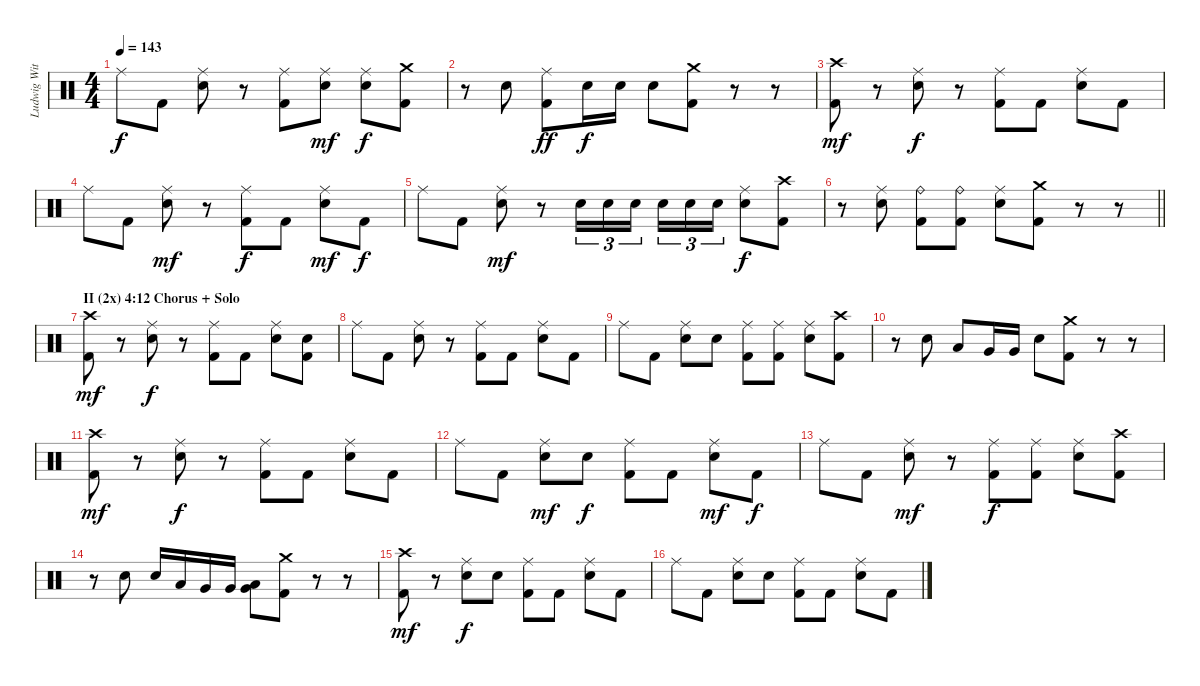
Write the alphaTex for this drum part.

\track ("Ludwig Witt (Drums)" "Ludwig Wit") {instrument percussion}
\staff {score}
\articulation defaults
\ts (4 4)
\tempo 143
\clef neutral
\ks c "Ride (middle)".8{dy f} "Kick (hit) 2".8
("Ride (middle)" "Electric Snare (hit)").8 r.8 ("Ride (middle)" "Kick (hit) 2").8 ("Ride (middle)" "Electric Snare (hit)").8{dy mf} ("Ride (middle)" "Electric Snare (hit)").8{dy f} ("Crash medium (hit)" "Kick (hit) 2").8 |
r.8 "Electric Snare (hit)".8 ("Ride (middle)" "Kick (hit) 2").8{dy ff} "Electric Snare (hit)".16{dy f} "Electric Snare (hit)".16 "Electric Snare (hit)".8 ("Crash medium (hit)" "Kick (hit) 2").8 r.8 r.8 |
("Crash high (hit)" "Kick (hit) 2").8{dy mf} r.8 ("Ride (middle)" "Electric Snare (hit)").8{dy f} r.8 ("Ride (middle)" "Kick (hit) 2").8 "Kick (hit) 2".8 ("Ride (middle)" "Electric Snare (hit)").8 "Kick (hit) 2".8 |
"Ride (middle)".8 "Kick (hit) 2".8 ("Ride (middle)" "Electric Snare (hit)").8{dy mf} r.8 ("Ride (middle)" "Kick (hit) 2").8{dy f} "Kick (hit) 2".8 ("Ride (middle)" "Electric Snare (hit)").8{dy mf} "Kick (hit) 2".8{dy f} |
"Ride (middle)".8 "Kick (hit) 2".8 ("Ride (middle)" "Electric Snare (hit)").8{dy mf} r.8 "Electric Snare (hit)".16{tu (3 2)} "Electric Snare (hit)".16{tu (3 2)} "Electric Snare (hit)".16{tu (3 2) beam splitsecondary} "Electric Snare (hit)".16{tu (3 2)} "Electric Snare (hit)".16{tu (3 2)} "Electric Snare (hit)".16{tu (3 2)} ("Ride (middle)" "Electric Snare (hit)").8{dy f} ("Crash high (hit)" "Kick (hit) 2").8 |
\barLineRight lightlight
r.8 ("Ride (middle)" "Electric Snare (hit)").8 ("Ride (bell)" "Kick (hit) 2").8 ("Ride (bell)" "Kick (hit) 2").8 ("Ride (middle)" "Electric Snare (hit)").8 ("Crash medium (hit)" "Kick (hit) 2").8 r.8 r.8 |
\section ("" "II (2x) 4:12 Chorus + Solo")
("Crash high (hit)" "Kick (hit) 2").8{dy mf} r.8 ("Ride (middle)" "Electric Snare (hit)").8{dy f} r.8 ("Ride (middle)" "Kick (hit) 2").8 "Kick (hit) 2".8 ("Ride (middle)" "Electric Snare (hit)").8 ("Electric Snare (hit)" "Kick (hit) 2").8 |
"Ride (middle)".8 "Kick (hit) 2".8 ("Ride (middle)" "Electric Snare (hit)").8 r.8 ("Ride (middle)" "Kick (hit) 2").8 "Kick (hit) 2".8 ("Ride (middle)" "Electric Snare (hit)").8 "Kick (hit) 2".8 |
"Ride (middle)".8 "Kick (hit) 2".8 ("Ride (middle)" "Electric Snare (hit)").8 "Electric Snare (hit)".8 ("Ride (middle)" "Kick (hit) 2").8 ("Ride (middle)" "Kick (hit) 2").8 ("Ride (middle)" "Electric Snare (hit)").8 ("Crash high (hit)" "Kick (hit) 2").8 |
r.8 "Electric Snare (hit)".8 "Low Tom (hit)".8 "Very Low Tom (hit)".16 "Very Low Tom (hit)".16 "Electric Snare (hit)".8 ("Crash medium (hit)" "Kick (hit) 2").8 r.8 r.8 |
("Crash high (hit)" "Kick (hit) 2").8{dy mf} r.8 ("Ride (middle)" "Electric Snare (hit)").8{dy f} r.8 ("Ride (middle)" "Kick (hit) 2").8 "Kick (hit) 2".8 ("Ride (middle)" "Electric Snare (hit)").8 "Kick (hit) 2".8 |
"Ride (middle)".8 "Kick (hit) 2".8 ("Ride (middle)" "Electric Snare (hit)").8{dy mf} "Electric Snare (hit)".8{dy f} ("Ride (middle)" "Kick (hit) 2").8 "Kick (hit) 2".8 ("Ride (middle)" "Electric Snare (hit)").8{dy mf} "Kick (hit) 2".8{dy f} |
"Ride (middle)".8 "Kick (hit) 2".8 ("Ride (middle)" "Electric Snare (hit)").8{dy mf} r.8 ("Ride (middle)" "Kick (hit) 2").8{dy f} ("Ride (middle)" "Kick (hit) 2").8 ("Ride (middle)" "Electric Snare (hit)").8 ("Crash high (hit)" "Kick (hit) 2").8 |
r.8 "Electric Snare (hit)".8 "Electric Snare (hit)".16 "Low Tom (hit)".16 "Very Low Tom (hit)".16 "Very Low Tom (hit)".16 ("Very Low Tom (hit)" "Low Floor Tom (hit)").8 ("Crash medium (hit)" "Kick (hit) 2").8 r.8 r.8 |
("Crash high (hit)" "Kick (hit) 2").8{dy mf} r.8 ("Ride (middle)" "Electric Snare (hit)").8{dy f} "Electric Snare (hit)".8 ("Ride (middle)" "Kick (hit) 2").8 "Kick (hit) 2".8 ("Ride (middle)" "Electric Snare (hit)").8 "Kick (hit) 2".8 |
"Ride (middle)".8 "Kick (hit) 2".8 ("Ride (middle)" "Electric Snare (hit)").8 "Electric Snare (hit)".8 ("Ride (middle)" "Kick (hit) 2").8 "Kick (hit) 2".8 ("Ride (middle)" "Electric Snare (hit)").8 "Kick (hit) 2".8
